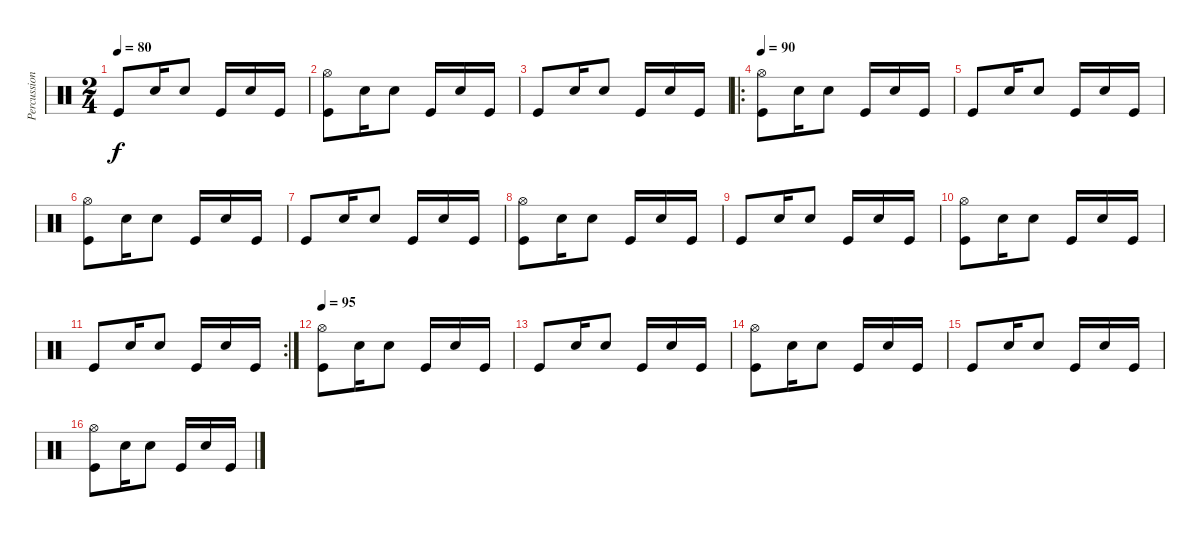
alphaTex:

\track ("Percussions" "Percussion") {instrument percussion}
\staff {score}
\articulation defaults
\ts (2 4)
\tempo 80
\clef neutral
\ks c "Kick (hit)".8{dy f} "Electric Snare (hit)".16 "Electric Snare (hit)".8 "Kick (hit)".16 "Electric Snare (hit)".16 "Kick (hit)".16
|
("Hi-Hat (open)" "Kick (hit)").8 "Electric Snare (hit)".16 "Electric Snare (hit)".8 "Kick (hit)".16 "Electric Snare (hit)".16 "Kick (hit)".16 |
"Kick (hit)".8 "Electric Snare (hit)".16 "Electric Snare (hit)".8 "Kick (hit)".16 "Electric Snare (hit)".16 "Kick (hit)".16 |
\ro
\tempo 90
("Hi-Hat (open)" "Kick (hit)").8 "Electric Snare (hit)".16 "Electric Snare (hit)".8 "Kick (hit)".16 "Electric Snare (hit)".16 "Kick (hit)".16 |
"Kick (hit)".8 "Electric Snare (hit)".16 "Electric Snare (hit)".8 "Kick (hit)".16 "Electric Snare (hit)".16 "Kick (hit)".16 |
("Hi-Hat (open)" "Kick (hit)").8 "Electric Snare (hit)".16 "Electric Snare (hit)".8 "Kick (hit)".16 "Electric Snare (hit)".16 "Kick (hit)".16 |
"Kick (hit)".8 "Electric Snare (hit)".16 "Electric Snare (hit)".8 "Kick (hit)".16 "Electric Snare (hit)".16 "Kick (hit)".16 |
("Hi-Hat (open)" "Kick (hit)").8 "Electric Snare (hit)".16 "Electric Snare (hit)".8 "Kick (hit)".16 "Electric Snare (hit)".16 "Kick (hit)".16 |
"Kick (hit)".8 "Electric Snare (hit)".16 "Electric Snare (hit)".8 "Kick (hit)".16 "Electric Snare (hit)".16 "Kick (hit)".16 |
("Hi-Hat (open)" "Kick (hit)").8 "Electric Snare (hit)".16 "Electric Snare (hit)".8 "Kick (hit)".16 "Electric Snare (hit)".16 "Kick (hit)".16 |
\rc 2 "Kick (hit)".8 "Electric Snare (hit)".16 "Electric Snare (hit)".8 "Kick (hit)".16 "Electric Snare (hit)".16 "Kick (hit)".16
|
\tempo 95
("Hi-Hat (open)" "Kick (hit)").8 "Electric Snare (hit)".16 "Electric Snare (hit)".8 "Kick (hit)".16 "Electric Snare (hit)".16 "Kick (hit)".16 |
"Kick (hit)".8 "Electric Snare (hit)".16 "Electric Snare (hit)".8 "Kick (hit)".16 "Electric Snare (hit)".16 "Kick (hit)".16 |
("Hi-Hat (open)" "Kick (hit)").8 "Electric Snare (hit)".16 "Electric Snare (hit)".8 "Kick (hit)".16 "Electric Snare (hit)".16 "Kick (hit)".16 |
"Kick (hit)".8 "Electric Snare (hit)".16 "Electric Snare (hit)".8 "Kick (hit)".16 "Electric Snare (hit)".16 "Kick (hit)".16 |
("Hi-Hat (open)" "Kick (hit)").8 "Electric Snare (hit)".16 "Electric Snare (hit)".8 "Kick (hit)".16 "Electric Snare (hit)".16 "Kick (hit)".16
